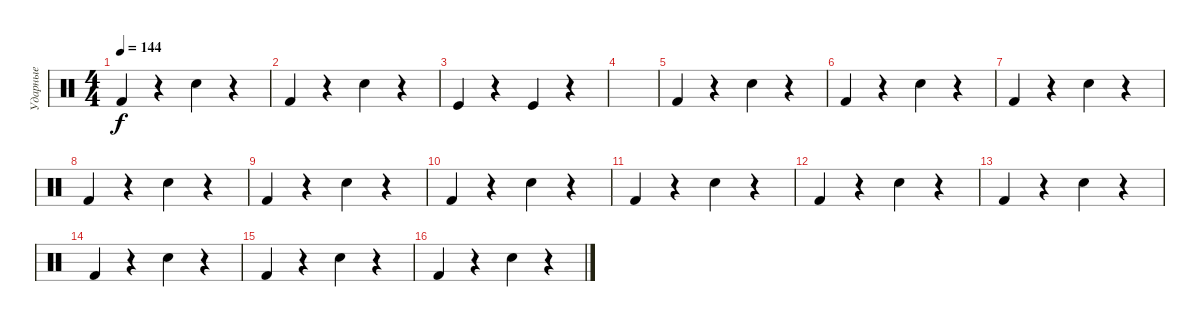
\track ("Ударные" "Ударные") {instrument percussion}
\staff {score}
\articulation defaults
\ts (4 4)
\tempo 144
\clef neutral
\ks c "Kick (hit) 2".4{dy f}
r.4 "Snare (hit) 2".4 r.4 |
"Kick (hit) 2".4 r.4 "Snare (hit) 2".4 r.4 |
"Kick (hit)".4 r.4 "Kick (hit)".4 r.4 |
|
"Kick (hit) 2".4 r.4 "Snare (hit) 2".4 r.4 |
"Kick (hit) 2".4 r.4 "Snare (hit) 2".4 r.4 |
"Kick (hit) 2".4 r.4 "Snare (hit) 2".4 r.4 |
"Kick (hit) 2".4 r.4 "Snare (hit) 2".4 r.4 |
"Kick (hit) 2".4 r.4 "Snare (hit) 2".4 r.4 |
"Kick (hit) 2".4 r.4 "Snare (hit) 2".4 r.4 |
"Kick (hit) 2".4 r.4 "Snare (hit) 2".4 r.4 |
"Kick (hit) 2".4 r.4 "Snare (hit) 2".4 r.4 |
"Kick (hit) 2".4 r.4 "Snare (hit) 2".4 r.4 |
"Kick (hit) 2".4 r.4 "Snare (hit) 2".4 r.4 |
"Kick (hit) 2".4 r.4 "Snare (hit) 2".4 r.4 |
"Kick (hit) 2".4 r.4 "Snare (hit) 2".4 r.4
